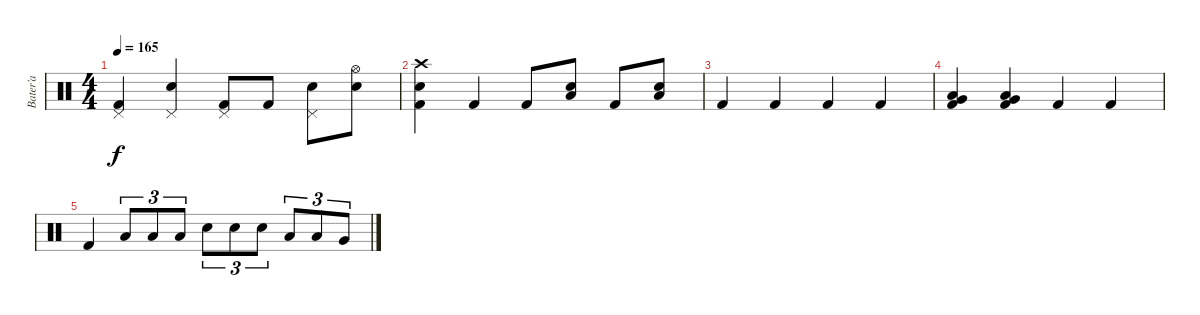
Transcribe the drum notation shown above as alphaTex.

\track ("Bater’a" "Bater’a") {instrument percussion}
\staff {score}
\articulation defaults
\ts (4 4)
\tempo 165
\clef neutral
\ks c
("Pedal Hi-Hat (hit)" "Kick (hit) 2").4{dy f} ("Pedal Hi-Hat (hit)" "Electric Snare (hit)").4 ("Pedal Hi-Hat (hit)" "Kick (hit) 2").8 "Kick (hit) 2".8 ("Pedal Hi-Hat (hit)" "Electric Snare (hit)").8 ("Hi-Hat (open)" "Electric Snare (hit)").8 |
("Crash high (hit)" "Electric Snare (hit)" "Kick (hit) 2").4 "Kick (hit) 2".4 "Kick (hit) 2".8 ("Electric Snare (hit)" "Low Floor Tom (hit)").8 "Kick (hit) 2".8 ("Electric Snare (hit)" "Low Floor Tom (hit)").8 |
"Kick (hit) 2".4 "Kick (hit) 2".4 "Kick (hit) 2".4 "Kick (hit) 2".4 |
("Very Low Tom (hit)" "Low Floor Tom (hit)" "Kick (hit) 2").4 ("Very Low Tom (hit)" "Low Floor Tom (hit)" "Kick (hit) 2").4 "Kick (hit) 2".4 "Kick (hit) 2".4 |
"Kick (hit) 2".4 "Low Tom (hit)".8{tu (3 2)} "Low Tom (hit)".8{tu (3 2)} "Low Tom (hit)".8{tu (3 2)} "Electric Snare (hit)".8{tu (3 2)} "Electric Snare (hit)".8{tu (3 2)} "Electric Snare (hit)".8{tu (3 2)} "Low Tom (hit)".8{tu (3 2)} "Low Tom (hit)".8{tu (3 2)} "Very Low Tom (hit)".8{tu (3 2)}
